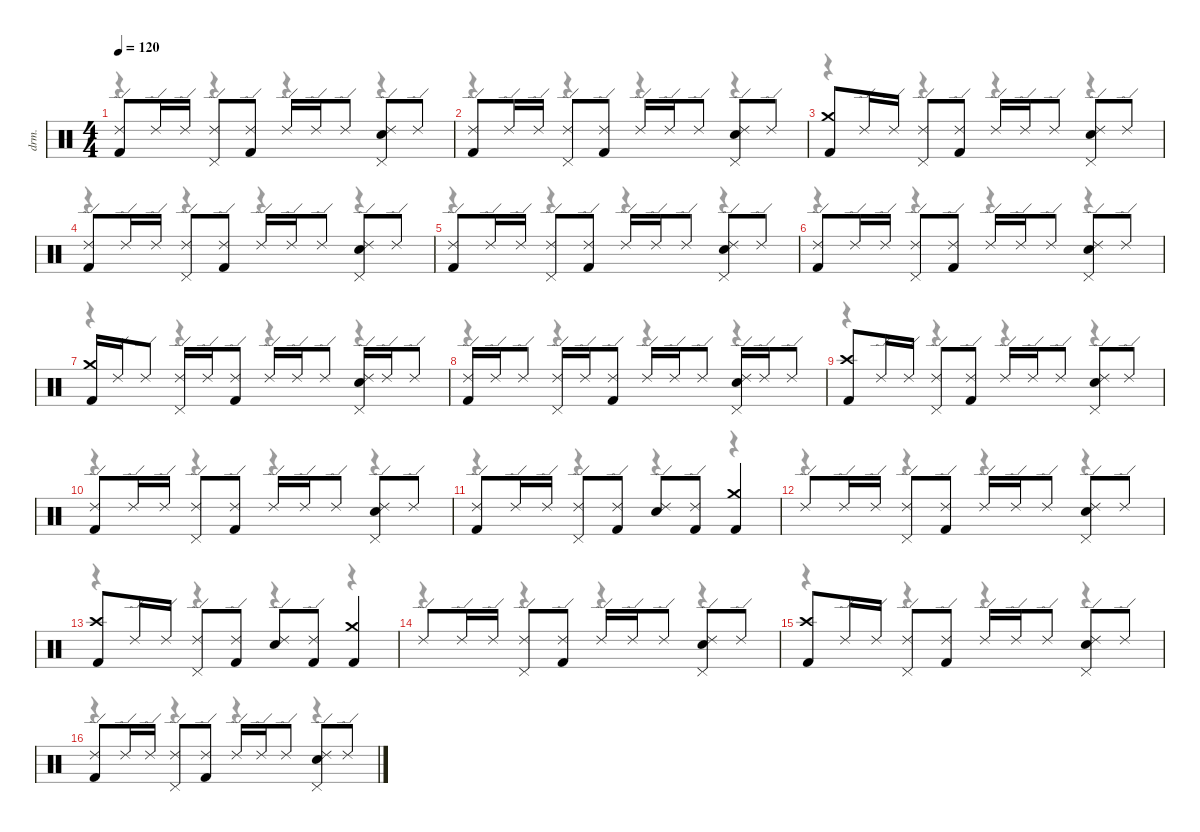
\defaultSystemsLayout 4
\hideDynamics
\bracketExtendMode nobrackets
\otherSystemsTrackNameOrientation horizontal
\track ("Percussion" "drm.") {instrument percussion}
\staff {score}
\articulation defaults
\voice
\ts (4 4)
\tempo 120
\clef neutral
\ks c
("Ride (edge) 2" "Kick (hit) 2").8{dy f} "Ride (edge) 2".16 "Ride (edge) 2".16 ("Ride (edge) 2" "Pedal Hi-Hat (hit)").8 ("Ride (edge) 2" "Kick (hit) 2").8 "Ride (edge) 2".16 "Ride (edge) 2".16 "Ride (edge) 2".8 ("Ride (edge) 2" "Pedal Hi-Hat (hit)" "Snare (hit) 2").8 "Ride (edge) 2".8 |
("Ride (edge) 2" "Kick (hit) 2").8 "Ride (edge) 2".16 "Ride (edge) 2".16 ("Ride (edge) 2" "Pedal Hi-Hat (hit)").8 ("Ride (edge) 2" "Kick (hit) 2").8 "Ride (edge) 2".16 "Ride (edge) 2".16 "Ride (edge) 2".8 ("Ride (edge) 2" "Pedal Hi-Hat (hit)" "Snare (hit) 2").8 "Ride (edge) 2".8 |
("Crash medium (hit)" "Kick (hit) 2").8 "Ride (edge) 2".16 "Ride (edge) 2".16 ("Ride (edge) 2" "Pedal Hi-Hat (hit)").8 ("Ride (edge) 2" "Kick (hit) 2").8 "Ride (edge) 2".16 "Ride (edge) 2".16 "Ride (edge) 2".8 ("Ride (edge) 2" "Pedal Hi-Hat (hit)" "Snare (hit) 2").8 "Ride (edge) 2".8 |
("Ride (edge) 2" "Kick (hit) 2").8 "Ride (edge) 2".16 "Ride (edge) 2".16 ("Ride (edge) 2" "Pedal Hi-Hat (hit)").8 ("Ride (edge) 2" "Kick (hit) 2").8 "Ride (edge) 2".16 "Ride (edge) 2".16 "Ride (edge) 2".8 ("Ride (edge) 2" "Pedal Hi-Hat (hit)" "Snare (hit) 2").8 "Ride (edge) 2".8 |
("Ride (edge) 2" "Kick (hit) 2").8 "Ride (edge) 2".16 "Ride (edge) 2".16 ("Ride (edge) 2" "Pedal Hi-Hat (hit)").8 ("Ride (edge) 2" "Kick (hit) 2").8 "Ride (edge) 2".16 "Ride (edge) 2".16 "Ride (edge) 2".8 ("Ride (edge) 2" "Pedal Hi-Hat (hit)" "Snare (hit) 2").8 "Ride (edge) 2".8 |
("Ride (edge) 2" "Kick (hit) 2").8 "Ride (edge) 2".16 "Ride (edge) 2".16 ("Ride (edge) 2" "Pedal Hi-Hat (hit)").8 ("Ride (edge) 2" "Kick (hit) 2").8 "Ride (edge) 2".16 "Ride (edge) 2".16 "Ride (edge) 2".8 ("Ride (edge) 2" "Pedal Hi-Hat (hit)" "Snare (hit) 2").8 "Ride (edge) 2".8 |
("Crash medium (hit)" "Kick (hit) 2").16 "Ride (edge) 2".16 "Ride (edge) 2".8 ("Ride (edge) 2" "Pedal Hi-Hat (hit)").16 "Ride (edge) 2".16 ("Ride (edge) 2" "Kick (hit) 2").8 "Ride (edge) 2".16 "Ride (edge) 2".16 "Ride (edge) 2".8 ("Ride (edge) 2" "Pedal Hi-Hat (hit)" "Snare (hit) 2").16 "Ride (edge) 2".16 "Ride (edge) 2".8 |
("Ride (edge) 2" "Kick (hit) 2").16 "Ride (edge) 2".16 "Ride (edge) 2".8 ("Ride (edge) 2" "Pedal Hi-Hat (hit)").16 "Ride (edge) 2".16 ("Ride (edge) 2" "Kick (hit) 2").8 "Ride (edge) 2".16 "Ride (edge) 2".16 "Ride (edge) 2".8 ("Ride (edge) 2" "Pedal Hi-Hat (hit)" "Snare (hit) 2").16 "Ride (edge) 2".16 "Ride (edge) 2".8 |
("Crash high (hit)" "Kick (hit) 2").8 "Ride (edge) 2".16 "Ride (edge) 2".16 ("Ride (edge) 2" "Pedal Hi-Hat (hit)").8 ("Ride (edge) 2" "Kick (hit) 2").8 "Ride (edge) 2".16 "Ride (edge) 2".16 "Ride (edge) 2".8 ("Ride (edge) 2" "Pedal Hi-Hat (hit)" "Snare (hit) 2").8 "Ride (edge) 2".8 |
("Ride (edge) 2" "Kick (hit) 2").8 "Ride (edge) 2".16 "Ride (edge) 2".16 ("Ride (edge) 2" "Pedal Hi-Hat (hit)").8 ("Ride (edge) 2" "Kick (hit) 2").8 "Ride (edge) 2".16 "Ride (edge) 2".16 "Ride (edge) 2".8 ("Ride (edge) 2" "Pedal Hi-Hat (hit)" "Snare (hit) 2").8 "Ride (edge) 2".8 |
("Ride (edge) 2" "Kick (hit) 2").8 "Ride (edge) 2".16 "Ride (edge) 2".16 ("Ride (edge) 2" "Pedal Hi-Hat (hit)").8 ("Ride (edge) 2" "Kick (hit) 2").8 ("Ride (edge) 2" "Snare (hit) 2").8 ("Ride (edge) 2" "Kick (hit) 2").8 ("Crash medium (hit)" "Kick (hit) 2").4 |
"Ride (edge) 2".8 "Ride (edge) 2".16 "Ride (edge) 2".16 ("Ride (edge) 2" "Pedal Hi-Hat (hit)").8 ("Ride (edge) 2" "Kick (hit) 2").8 "Ride (edge) 2".16 "Ride (edge) 2".16 "Ride (edge) 2".8 ("Ride (edge) 2" "Pedal Hi-Hat (hit)" "Snare (hit) 2").8 "Ride (edge) 2".8 |
("Crash high (hit)" "Kick (hit) 2").8 "Ride (edge) 2".16 "Ride (edge) 2".16 ("Ride (edge) 2" "Pedal Hi-Hat (hit)").8 ("Ride (edge) 2" "Kick (hit) 2").8 ("Ride (edge) 2" "Snare (hit) 2").8 ("Ride (edge) 2" "Kick (hit) 2").8 ("Crash medium (hit)" "Kick (hit) 2").4 |
"Ride (edge) 2".8 "Ride (edge) 2".16 "Ride (edge) 2".16 ("Ride (edge) 2" "Pedal Hi-Hat (hit)").8 ("Ride (edge) 2" "Kick (hit) 2").8 "Ride (edge) 2".16 "Ride (edge) 2".16 "Ride (edge) 2".8 ("Ride (edge) 2" "Pedal Hi-Hat (hit)" "Snare (hit) 2").8 "Ride (edge) 2".8 |
("Crash high (hit)" "Kick (hit) 2").8 "Ride (edge) 2".16 "Ride (edge) 2".16 ("Ride (edge) 2" "Pedal Hi-Hat (hit)").8 ("Ride (edge) 2" "Kick (hit) 2").8 "Ride (edge) 2".16 "Ride (edge) 2".16 "Ride (edge) 2".8 ("Ride (edge) 2" "Pedal Hi-Hat (hit)" "Snare (hit) 2").8 "Ride (edge) 2".8 |
("Ride (edge) 2" "Kick (hit) 2").8 "Ride (edge) 2".16 "Ride (edge) 2".16 ("Ride (edge) 2" "Pedal Hi-Hat (hit)").8 ("Ride (edge) 2" "Kick (hit) 2").8 "Ride (edge) 2".16 "Ride (edge) 2".16 "Ride (edge) 2".8 ("Ride (edge) 2" "Pedal Hi-Hat (hit)" "Snare (hit) 2").8 "Ride (edge) 2".8
\voice
\clef neutral
\ottava regular
\simile none
\ks c
r.4{dy mf} r.4 r.4 r.4 |
r.4 r.4 r.4 r.4 |
r.4 r.4 r.4 r.4 |
r.4 r.4 r.4 r.4 |
r.4 r.4 r.4 r.4 |
r.4 r.4 r.4 r.4 |
r.4 r.4 r.4 r.4 |
r.4 r.4 r.4 r.4 |
r.4 r.4 r.4 r.4 |
r.4 r.4 r.4 r.4 |
r.4 r.4 r.4 r.4 |
r.4 r.4 r.4 r.4 |
r.4 r.4 r.4 r.4 |
r.4 r.4 r.4 r.4 |
r.4 r.4 r.4 r.4 |
r.4 r.4 r.4 r.4
